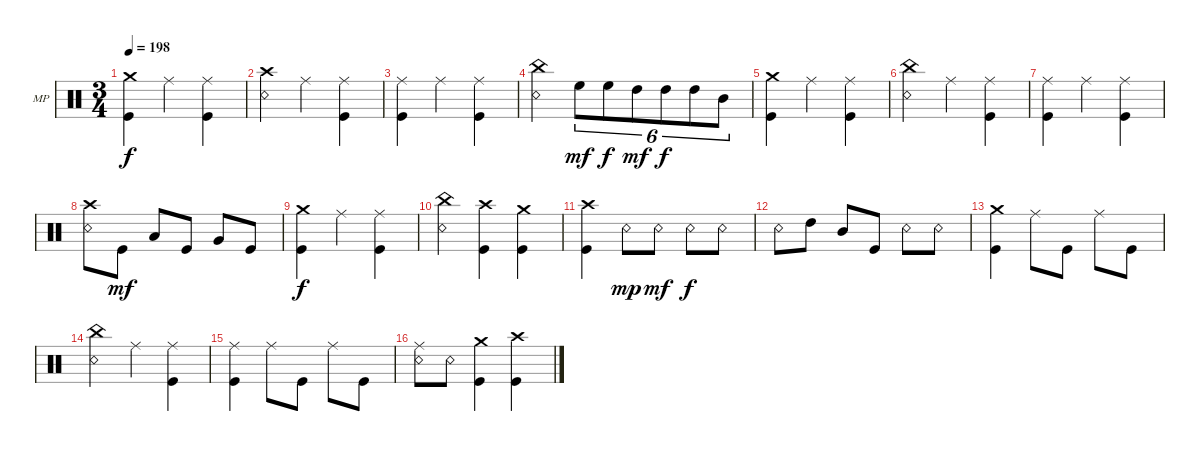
\defaultSystemsLayout 4
\bracketExtendMode groupsimilarinstruments
\firstSystemTrackNameOrientation horizontal
\otherSystemsTrackNameOrientation horizontal
\track ("Mike Portnoy" "MP") {instrument percussion}
\staff {score}
\articulation defaults
\ts (3 4)
\tempo 198
\clef neutral
\ks c
("Crash medium (hit)" "Kick (hit)").4{dy f} "Ride (middle)".4 ("Ride (middle)" "Kick (hit)").4 |
("Crash high (hit)" "Snare (rim shot)").4 "Ride (middle)".4 ("Ride (middle)" "Kick (hit)").4 |
("Ride (middle)" "Kick (hit)").4 "Ride (middle)".4 ("Ride (middle)" "Kick (hit)").4 |
("China (hit)" "Snare (rim shot)").4 "High Floor Tom (hit)".8{tu (6 4) dy mf} "High Floor Tom (hit)".8{tu (6 4) dy f} "High Tom (hit)".8{tu (6 4) dy mf} "High Tom (hit)".8{tu (6 4) dy f} "High Tom (hit)".8{tu (6 4)} "Mid Tom (hit)".8{tu (6 4)} |
("Crash medium (hit)" "Kick (hit)").4 "Ride (middle)".4 ("Ride (middle)" "Kick (hit)").4 |
("China (hit)" "Snare (rim shot)").4 "Ride (middle)".4 ("Ride (middle)" "Kick (hit)").4 |
("Ride (middle)" "Kick (hit)").4 "Ride (middle)".4 ("Ride (middle)" "Kick (hit)").4 |
("Crash high (hit)" "Snare (rim shot)").8 "Kick (hit)".8{dy mf} "Low Tom (hit)".8 "Kick (hit)".8 "Very Low Tom (hit)".8 "Kick (hit)".8 |
("Crash medium (hit)" "Kick (hit)").4{dy f} "Ride (middle)".4 ("Ride (middle)" "Kick (hit)").4 |
("China (hit)" "Snare (rim shot)").4 ("Crash high (hit)" "Kick (hit)").4 ("Crash medium (hit)" "Kick (hit)").4 |
("Crash high (hit)" "Kick (hit)").4 "Snare (rim shot)".8{dy mp} "Snare (rim shot)".8{dy mf} "Snare (rim shot)".8{dy f} "Snare (rim shot)".8 |
"Snare (rim shot)".8 "High Tom (hit)".8 "Mid Tom (hit)".8 "Kick (hit)".8 "Snare (rim shot)".8 "Snare (rim shot)".8 |
("Crash medium (hit)" "Kick (hit)").4 "Ride (middle)".8 "Kick (hit)".8 "Ride (middle)".8 "Kick (hit)".8 |
("China (hit)" "Snare (rim shot)").4 "Ride (middle)".4 ("Ride (middle)" "Kick (hit)").4 |
("Ride (middle)" "Kick (hit)").4 "Ride (middle)".8 "Kick (hit)".8 "Ride (middle)".8 "Kick (hit)".8 |
("Ride (middle)" "Snare (rim shot)").8 "Snare (rim shot)".8 ("Crash medium (hit)" "Kick (hit)").4 ("Crash high (hit)" "Kick (hit)").4
